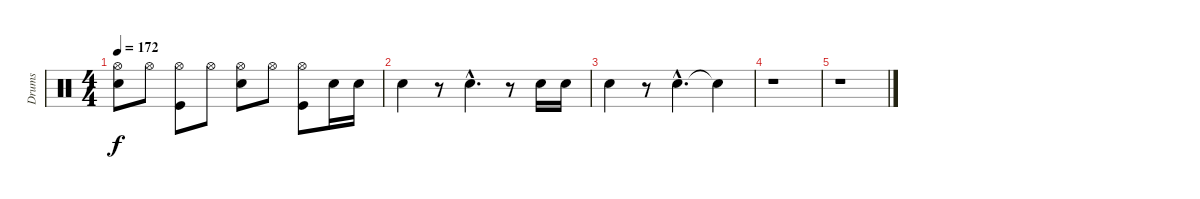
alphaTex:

\track ("Drums" "Drums") {instrument percussion}
\staff {score}
\articulation defaults
\ts (4 4)
\tempo 172
\clef neutral
\ks c
("Snare (hit) 2" "Hi-Hat (open)").8{dy f} "Hi-Hat (open)".8 ("Kick (hit)" "Hi-Hat (open)").8 "Hi-Hat (open)".8 ("Snare (hit) 2" "Hi-Hat (open)").8 "Hi-Hat (open)".8 ("Kick (hit)" "Hi-Hat (open)").8 "Snare (hit) 2".16 "Snare (hit) 2".16 |
"Snare (hit) 2".4 r.8 "Snare (hit) 2"{hac}.4{d} r.8 "Snare (hit) 2".16 "Snare (hit) 2".16 |
"Snare (hit) 2".4 r.8 "Snare (hit) 2"{hac}.4{d} "Snare (hit)"{t}.4 |
r.1 |
r.1
